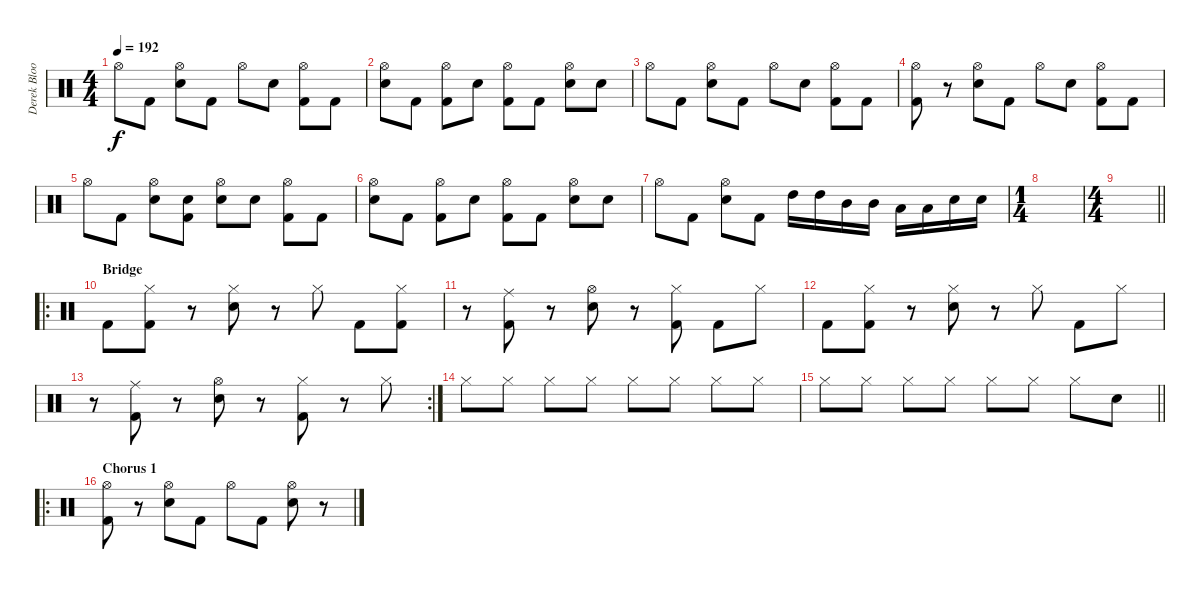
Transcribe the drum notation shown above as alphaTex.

\track ("Derek Bloom" "Derek Bloo") {instrument percussion}
\staff {score}
\articulation defaults
\ts (4 4)
\tempo 192
\clef neutral
\ks c "Hi-Hat (open)".8{dy f} "Kick (hit) 2".8
("Hi-Hat (open)" "Electric Snare (hit)").8 "Kick (hit) 2".8 "Hi-Hat (open)".8 "Electric Snare (hit)".8 ("Hi-Hat (open)" "Kick (hit) 2").8 "Kick (hit) 2".8 |
("Hi-Hat (open)" "Electric Snare (hit)").8 "Kick (hit) 2".8 ("Hi-Hat (open)" "Kick (hit) 2").8 "Electric Snare (hit)".8 ("Hi-Hat (open)" "Kick (hit) 2").8 "Kick (hit) 2".8 ("Hi-Hat (open)" "Electric Snare (hit)").8 "Electric Snare (hit)".8 |
"Hi-Hat (open)".8 "Kick (hit) 2".8 ("Hi-Hat (open)" "Electric Snare (hit)").8 "Kick (hit) 2".8 "Hi-Hat (open)".8 "Electric Snare (hit)".8 ("Hi-Hat (open)" "Kick (hit) 2").8 "Kick (hit) 2".8 |
("Hi-Hat (open)" "Kick (hit) 2").8 r.8 ("Hi-Hat (open)" "Electric Snare (hit)").8 "Kick (hit) 2".8 "Hi-Hat (open)".8 "Electric Snare (hit)".8 ("Hi-Hat (open)" "Kick (hit) 2").8 "Kick (hit) 2".8 |
"Hi-Hat (open)".8 "Kick (hit) 2".8 ("Hi-Hat (open)" "Electric Snare (hit)").8 ("Electric Snare (hit)" "Kick (hit) 2").8 ("Hi-Hat (open)" "Electric Snare (hit)").8 "Electric Snare (hit)".8 ("Hi-Hat (open)" "Kick (hit) 2").8 "Kick (hit) 2".8 |
("Hi-Hat (open)" "Electric Snare (hit)").8 "Kick (hit) 2".8 ("Hi-Hat (open)" "Kick (hit) 2").8 "Electric Snare (hit)".8 ("Hi-Hat (open)" "Kick (hit) 2").8 "Kick (hit) 2".8 ("Hi-Hat (open)" "Electric Snare (hit)").8 "Electric Snare (hit)".8 |
"Hi-Hat (open)".8 "Kick (hit) 2".8 ("Hi-Hat (open)" "Electric Snare (hit)").8 "Kick (hit) 2".8 "High Tom (hit)".16 "High Tom (hit)".16 "Mid Tom (hit)".16 "Mid Tom (hit)".16 "Low Tom (hit)".16 "Low Tom (hit)".16 "Electric Snare (hit)".16 "Electric Snare (hit)".16 |
\ts (1 4)
|
\ts (4 4)
\barLineRight lightlight
|
\ro
\section ("" "Bridge")
"Kick (hit) 2".8 ("Hi-Hat (closed)" "Kick (hit) 2").8 r.8 ("Hi-Hat (closed)" "Electric Snare (hit)").8 r.8 "Hi-Hat (closed)".8 "Kick (hit) 2".8 ("Hi-Hat (closed)" "Kick (hit) 2").8 |
r.8 ("Ride (middle)" "Kick (hit) 2").8 r.8 ("Hi-Hat (open)" "Electric Snare (hit)").8 r.8 ("Hi-Hat (closed)" "Kick (hit) 2").8 "Kick (hit) 2".8 "Hi-Hat (closed)".8 |
"Kick (hit) 2".8 ("Hi-Hat (closed)" "Kick (hit) 2").8 r.8 ("Hi-Hat (closed)" "Electric Snare (hit)").8 r.8 "Hi-Hat (closed)".8 "Kick (hit) 2".8 "Hi-Hat (closed)".8 |
\rc 2
r.8 ("Ride (middle)" "Kick (hit) 2").8 r.8 ("Hi-Hat (open)" "Electric Snare (hit)").8 r.8 ("Hi-Hat (closed)" "Kick (hit) 2").8 r.8 "Hi-Hat (closed)".8 |
"Hi-Hat (closed)".8 "Hi-Hat (closed)".8 "Hi-Hat (closed)".8 "Hi-Hat (closed)".8 "Hi-Hat (closed)".8 "Hi-Hat (closed)".8 "Hi-Hat (closed)".8 "Hi-Hat (closed)".8 |
\barLineRight lightlight "Hi-Hat (closed)".8 "Hi-Hat (closed)".8 "Hi-Hat (closed)".8 "Hi-Hat (closed)".8 "Hi-Hat (closed)".8 "Hi-Hat (closed)".8 "Hi-Hat (closed)".8 "Snare (hit)".8
|
\ro
\section ("" "Chorus 1")
("Hi-Hat (open)" "Kick (hit) 2").8 r.8 ("Hi-Hat (open)" "Electric Snare (hit)").8 "Kick (hit) 2".8 "Hi-Hat (open)".8 "Kick (hit) 2".8 ("Hi-Hat (open)" "Electric Snare (hit)").8 r.8
